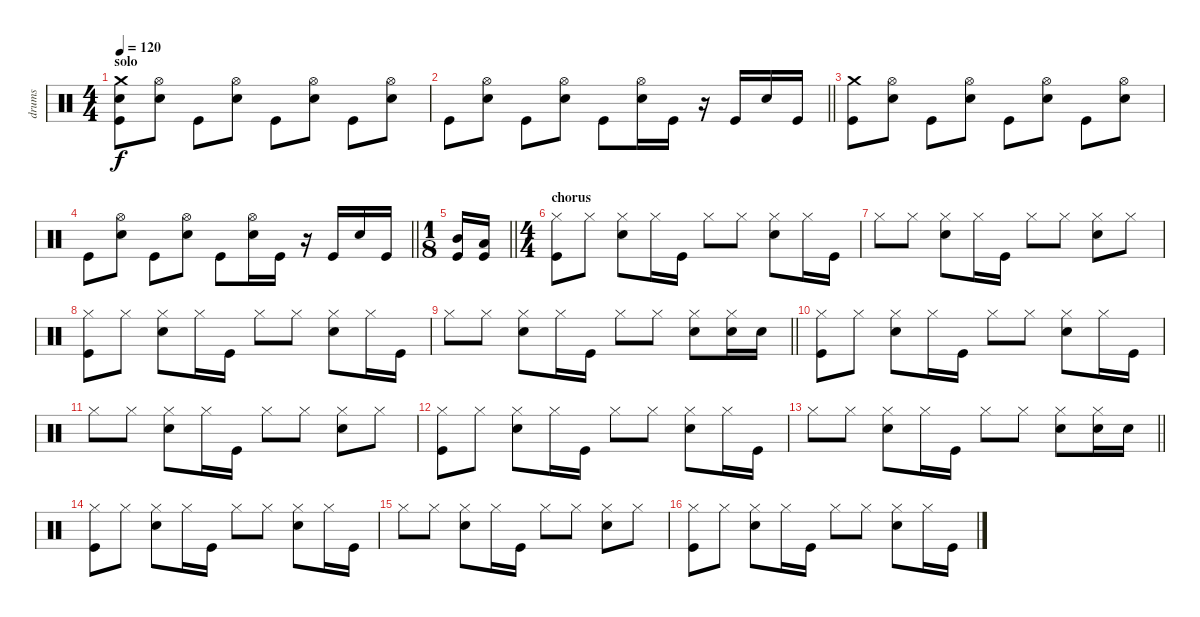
\track ("drums" "drums") {instrument percussion}
\staff {score}
\articulation defaults
\ts (4 4)
\section ("" "solo")
\tempo 120
\clef neutral
\ks c
("Crash medium (hit)" "Snare (hit) 2" "Kick (hit)").8{dy f} ("Hi-Hat (open)" "Snare (hit) 2").8 "Kick (hit)".8 ("Hi-Hat (open)" "Snare (hit) 2").8 "Kick (hit)".8 ("Hi-Hat (open)" "Snare (hit) 2").8 "Kick (hit)".8 ("Hi-Hat (open)" "Snare (hit) 2").8 |
\barLineRight lightlight "Kick (hit)".8
("Hi-Hat (open)" "Snare (hit) 2").8 "Kick (hit)".8 ("Hi-Hat (open)" "Snare (hit) 2").8 "Kick (hit)".8 ("Hi-Hat (open)" "Snare (hit) 2").16 "Kick (hit)".16 r.16 "Kick (hit)".16 "Snare (hit) 2".16 "Kick (hit)".16 |
("Crash medium (hit)" "Kick (hit)").8 ("Hi-Hat (open)" "Snare (hit) 2").8 "Kick (hit)".8 ("Hi-Hat (open)" "Snare (hit) 2").8 "Kick (hit)".8 ("Hi-Hat (open)" "Snare (hit) 2").8 "Kick (hit)".8 ("Hi-Hat (open)" "Snare (hit) 2").8 |
\barLineRight lightlight "Kick (hit)".8
("Hi-Hat (open)" "Snare (hit) 2").8 "Kick (hit)".8 ("Hi-Hat (open)" "Snare (hit) 2").8 "Kick (hit)".8 ("Hi-Hat (open)" "Snare (hit) 2").16 "Kick (hit)".16 r.16 "Kick (hit)".16 "Snare (hit) 2".16 "Kick (hit)".16 |
\ts (1 8)
\barLineRight lightlight
("Mid Tom (hit)" "Kick (hit)").16 ("Low Tom (hit)" "Kick (hit)").16 |
\ts (4 4)
\section ("" "chorus ")
("Hi-Hat (closed)" "Kick (hit)").8 "Hi-Hat (closed)".8 ("Hi-Hat (closed)" "Snare (hit) 2").8 "Hi-Hat (closed)".16 "Kick (hit)".16 "Hi-Hat (closed)".8 "Hi-Hat (closed)".8 ("Hi-Hat (closed)" "Snare (hit) 2").8 "Hi-Hat (closed)".16 "Kick (hit)".16 |
"Hi-Hat (closed)".8 "Hi-Hat (closed)".8 ("Hi-Hat (closed)" "Snare (hit) 2").8 "Hi-Hat (closed)".16 "Kick (hit)".16 "Hi-Hat (closed)".8 "Hi-Hat (closed)".8 ("Hi-Hat (closed)" "Snare (hit) 2").8 "Hi-Hat (closed)".8 |
("Hi-Hat (closed)" "Kick (hit)").8 "Hi-Hat (closed)".8 ("Hi-Hat (closed)" "Snare (hit) 2").8 "Hi-Hat (closed)".16 "Kick (hit)".16 "Hi-Hat (closed)".8 "Hi-Hat (closed)".8 ("Hi-Hat (closed)" "Snare (hit) 2").8 "Hi-Hat (closed)".16 "Kick (hit)".16 |
\barLineRight lightlight "Hi-Hat (closed)".8 "Hi-Hat (closed)".8
("Hi-Hat (closed)" "Snare (hit) 2").8 "Hi-Hat (closed)".16 "Kick (hit)".16 "Hi-Hat (closed)".8 "Hi-Hat (closed)".8 ("Hi-Hat (closed)" "Snare (hit) 2").8 ("Hi-Hat (closed)" "Snare (hit) 2").16 "Snare (hit) 2".16 |
("Hi-Hat (closed)" "Kick (hit)").8 "Hi-Hat (closed)".8 ("Hi-Hat (closed)" "Snare (hit) 2").8 "Hi-Hat (closed)".16 "Kick (hit)".16 "Hi-Hat (closed)".8 "Hi-Hat (closed)".8 ("Hi-Hat (closed)" "Snare (hit) 2").8 "Hi-Hat (closed)".16 "Kick (hit)".16 |
"Hi-Hat (closed)".8 "Hi-Hat (closed)".8 ("Hi-Hat (closed)" "Snare (hit) 2").8 "Hi-Hat (closed)".16 "Kick (hit)".16 "Hi-Hat (closed)".8 "Hi-Hat (closed)".8 ("Hi-Hat (closed)" "Snare (hit) 2").8 "Hi-Hat (closed)".8 |
("Hi-Hat (closed)" "Kick (hit)").8 "Hi-Hat (closed)".8 ("Hi-Hat (closed)" "Snare (hit) 2").8 "Hi-Hat (closed)".16 "Kick (hit)".16 "Hi-Hat (closed)".8 "Hi-Hat (closed)".8 ("Hi-Hat (closed)" "Snare (hit) 2").8 "Hi-Hat (closed)".16 "Kick (hit)".16 |
\barLineRight lightlight "Hi-Hat (closed)".8 "Hi-Hat (closed)".8
("Hi-Hat (closed)" "Snare (hit) 2").8 "Hi-Hat (closed)".16 "Kick (hit)".16 "Hi-Hat (closed)".8 "Hi-Hat (closed)".8 ("Hi-Hat (closed)" "Snare (hit) 2").8 ("Hi-Hat (closed)" "Snare (hit) 2").16 "Snare (hit) 2".16 |
("Hi-Hat (closed)" "Kick (hit)").8 "Hi-Hat (closed)".8 ("Hi-Hat (closed)" "Snare (hit) 2").8 "Hi-Hat (closed)".16 "Kick (hit)".16 "Hi-Hat (closed)".8 "Hi-Hat (closed)".8 ("Hi-Hat (closed)" "Snare (hit) 2").8 "Hi-Hat (closed)".16 "Kick (hit)".16 |
"Hi-Hat (closed)".8 "Hi-Hat (closed)".8 ("Hi-Hat (closed)" "Snare (hit) 2").8 "Hi-Hat (closed)".16 "Kick (hit)".16 "Hi-Hat (closed)".8 "Hi-Hat (closed)".8 ("Hi-Hat (closed)" "Snare (hit) 2").8 "Hi-Hat (closed)".8 |
("Hi-Hat (closed)" "Kick (hit)").8 "Hi-Hat (closed)".8 ("Hi-Hat (closed)" "Snare (hit) 2").8 "Hi-Hat (closed)".16 "Kick (hit)".16 "Hi-Hat (closed)".8 "Hi-Hat (closed)".8 ("Hi-Hat (closed)" "Snare (hit) 2").8 "Hi-Hat (closed)".16 "Kick (hit)".16
